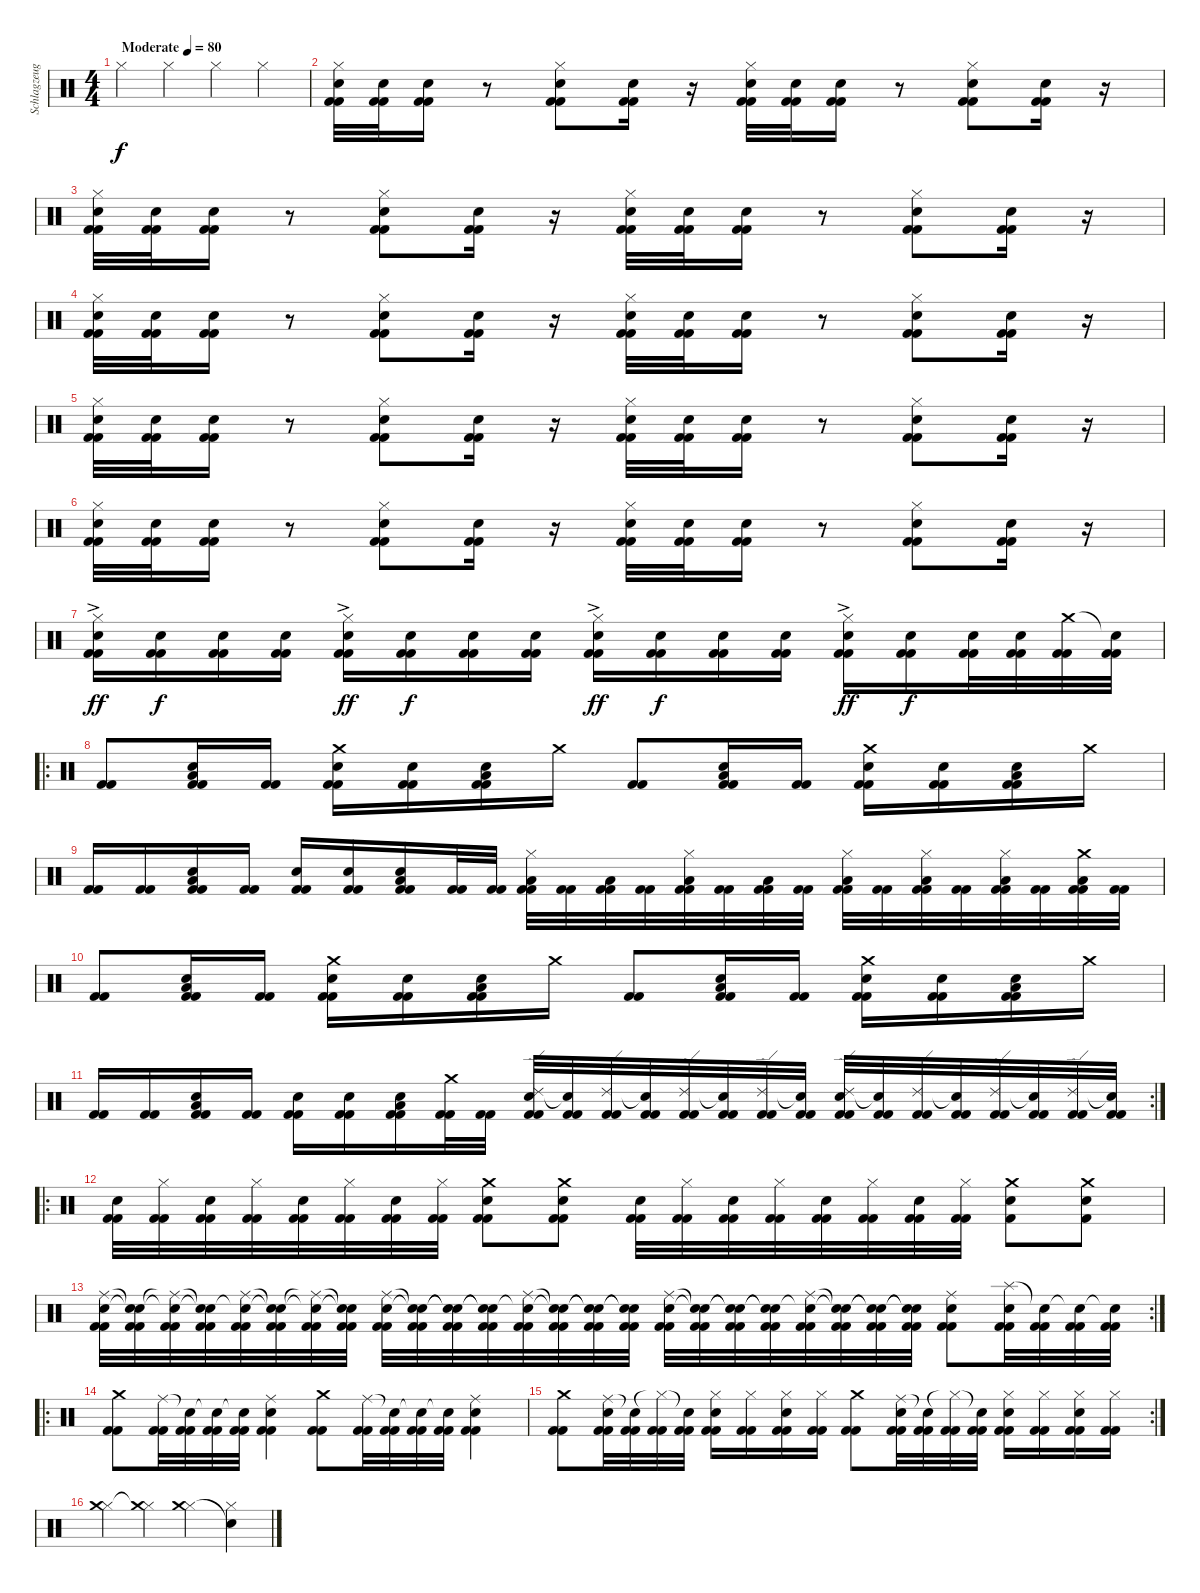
\track ("Schlagzeug" "Schlagzeug") {instrument percussion}
\staff {score}
\articulation defaults
\ts (4 4)
\tempo (80 "Moderate")
\clef neutral
\ks c "Hi-Hat (closed)".4{dy f} "Hi-Hat (closed)".4 "Hi-Hat (closed)".4 "Hi-Hat (closed)".4
|
("Hi-Hat (closed)" "Snare (hit) 2" "Kick (hit) 2" "Kick (hit) 2").32 ("Snare (hit) 2" "Kick (hit) 2" "Kick (hit) 2").32 ("Snare (hit) 2" "Kick (hit) 2" "Kick (hit) 2").16 r.8 ("Hi-Hat (closed)" "Snare (hit) 2" "Kick (hit) 2" "Kick (hit) 2").8 ("Snare (hit) 2" "Kick (hit) 2" "Kick (hit) 2").16 r.16 ("Hi-Hat (closed)" "Snare (hit) 2" "Kick (hit) 2" "Kick (hit) 2").32 ("Snare (hit) 2" "Kick (hit) 2" "Kick (hit) 2").32 ("Snare (hit) 2" "Kick (hit) 2" "Kick (hit) 2").16 r.8 ("Hi-Hat (closed)" "Snare (hit) 2" "Kick (hit) 2" "Kick (hit) 2").8 ("Snare (hit) 2" "Kick (hit) 2" "Kick (hit) 2").16 r.16 |
("Hi-Hat (closed)" "Snare (hit) 2" "Kick (hit) 2" "Kick (hit) 2").32 ("Snare (hit) 2" "Kick (hit) 2" "Kick (hit) 2").32 ("Snare (hit) 2" "Kick (hit) 2" "Kick (hit) 2").16 r.8 ("Hi-Hat (closed)" "Snare (hit) 2" "Kick (hit) 2" "Kick (hit) 2").8 ("Snare (hit) 2" "Kick (hit) 2" "Kick (hit) 2").16 r.16 ("Hi-Hat (closed)" "Snare (hit) 2" "Kick (hit) 2" "Kick (hit) 2").32 ("Snare (hit) 2" "Kick (hit) 2" "Kick (hit) 2").32 ("Snare (hit) 2" "Kick (hit) 2" "Kick (hit) 2").16 r.8 ("Hi-Hat (closed)" "Snare (hit) 2" "Kick (hit) 2" "Kick (hit) 2").8 ("Snare (hit) 2" "Kick (hit) 2" "Kick (hit) 2").16 r.16 |
("Hi-Hat (closed)" "Snare (hit) 2" "Kick (hit) 2" "Kick (hit) 2").32 ("Snare (hit) 2" "Kick (hit) 2" "Kick (hit) 2").32 ("Snare (hit) 2" "Kick (hit) 2" "Kick (hit) 2").16 r.8 ("Hi-Hat (closed)" "Snare (hit) 2" "Kick (hit) 2" "Kick (hit) 2").8 ("Snare (hit) 2" "Kick (hit) 2" "Kick (hit) 2").16 r.16 ("Hi-Hat (closed)" "Snare (hit) 2" "Kick (hit) 2" "Kick (hit) 2").32 ("Snare (hit) 2" "Kick (hit) 2" "Kick (hit) 2").32 ("Snare (hit) 2" "Kick (hit) 2" "Kick (hit) 2").16 r.8 ("Hi-Hat (closed)" "Snare (hit) 2" "Kick (hit) 2" "Kick (hit) 2").8 ("Snare (hit) 2" "Kick (hit) 2" "Kick (hit) 2").16 r.16 |
("Hi-Hat (closed)" "Snare (hit) 2" "Kick (hit) 2" "Kick (hit) 2").32 ("Snare (hit) 2" "Kick (hit) 2" "Kick (hit) 2").32 ("Snare (hit) 2" "Kick (hit) 2" "Kick (hit) 2").16 r.8 ("Hi-Hat (closed)" "Snare (hit) 2" "Kick (hit) 2" "Kick (hit) 2").8 ("Snare (hit) 2" "Kick (hit) 2" "Kick (hit) 2").16 r.16 ("Hi-Hat (closed)" "Snare (hit) 2" "Kick (hit) 2" "Kick (hit) 2").32 ("Snare (hit) 2" "Kick (hit) 2" "Kick (hit) 2").32 ("Snare (hit) 2" "Kick (hit) 2" "Kick (hit) 2").16 r.8 ("Hi-Hat (closed)" "Snare (hit) 2" "Kick (hit) 2" "Kick (hit) 2").8 ("Snare (hit) 2" "Kick (hit) 2" "Kick (hit) 2").16 r.16 |
("Hi-Hat (closed)" "Snare (hit) 2" "Kick (hit) 2" "Kick (hit) 2").32 ("Snare (hit) 2" "Kick (hit) 2" "Kick (hit) 2").32 ("Snare (hit) 2" "Kick (hit) 2" "Kick (hit) 2").16 r.8 ("Hi-Hat (closed)" "Snare (hit) 2" "Kick (hit) 2" "Kick (hit) 2").8 ("Snare (hit) 2" "Kick (hit) 2" "Kick (hit) 2").16 r.16 ("Hi-Hat (closed)" "Snare (hit) 2" "Kick (hit) 2" "Kick (hit) 2").32 ("Snare (hit) 2" "Kick (hit) 2" "Kick (hit) 2").32 ("Snare (hit) 2" "Kick (hit) 2" "Kick (hit) 2").16 r.8 ("Hi-Hat (closed)" "Snare (hit) 2" "Kick (hit) 2" "Kick (hit) 2").8 ("Snare (hit) 2" "Kick (hit) 2" "Kick (hit) 2").16 r.16 |
("Hi-Hat (closed)" "Snare (hit) 2"{ac} "Kick (hit) 2" "Kick (hit) 2").16{dy ff} ("Snare (hit) 2" "Kick (hit) 2" "Kick (hit) 2").16{dy f} ("Snare (hit) 2" "Kick (hit) 2" "Kick (hit) 2").16 ("Snare (hit) 2" "Kick (hit) 2" "Kick (hit) 2").16 ("Hi-Hat (closed)" "Snare (hit) 2"{ac} "Kick (hit) 2" "Kick (hit) 2").16{dy ff} ("Snare (hit) 2" "Kick (hit) 2" "Kick (hit) 2").16{dy f} ("Snare (hit) 2" "Kick (hit) 2" "Kick (hit) 2").16 ("Snare (hit) 2" "Kick (hit) 2" "Kick (hit) 2").16 ("Hi-Hat (closed)" "Snare (hit) 2"{ac} "Kick (hit) 2" "Kick (hit) 2").16{dy ff} ("Snare (hit) 2" "Kick (hit) 2" "Kick (hit) 2").16{dy f} ("Snare (hit) 2" "Kick (hit) 2" "Kick (hit) 2").16 ("Snare (hit) 2" "Kick (hit) 2" "Kick (hit) 2").16 ("Hi-Hat (closed)" "Snare (hit) 2"{ac} "Kick (hit) 2" "Kick (hit) 2").16{dy ff} ("Snare (hit) 2" "Kick (hit) 2" "Kick (hit) 2").16{dy f} ("Snare (hit) 2" "Kick (hit) 2" "Kick (hit) 2").32 ("Snare (hit) 2" "Kick (hit) 2" "Kick (hit) 2").32 ("Crash medium (hit)" "Kick (hit) 2" "Kick (hit) 2").32 ("Snare (hit)"{t} "Kick (hit) 2" "Kick (hit) 2").32 |
\ro
("Kick (hit) 2" "Kick (hit) 2").8 ("Snare (hit) 2" "Low Tom (hit)" "Kick (hit) 2" "Kick (hit) 2").16 ("Kick (hit) 2" "Kick (hit) 2").16 ("Crash medium (hit)" "Snare (hit) 2" "Kick (hit) 2" "Kick (hit) 2").16 ("Snare (hit) 2" "Kick (hit) 2" "Kick (hit) 2").16 ("Snare (hit) 2" "Low Tom (hit)" "Kick (hit) 2" "Kick (hit) 2").16 "Crash medium (hit)".16 ("Kick (hit) 2" "Kick (hit) 2").8 ("Snare (hit) 2" "Low Tom (hit)" "Kick (hit) 2" "Kick (hit) 2").16 ("Kick (hit) 2" "Kick (hit) 2").16 ("Crash medium (hit)" "Snare (hit) 2" "Kick (hit) 2" "Kick (hit) 2").16 ("Snare (hit) 2" "Kick (hit) 2" "Kick (hit) 2").16 ("Snare (hit) 2" "Low Tom (hit)" "Kick (hit) 2" "Kick (hit) 2").16 "Crash medium (hit)".16 |
("Kick (hit) 2" "Kick (hit) 2").16 ("Kick (hit) 2" "Kick (hit) 2").16 ("Snare (hit) 2" "Low Tom (hit)" "Kick (hit) 2" "Kick (hit) 2").16 ("Kick (hit) 2" "Kick (hit) 2").16 ("Snare (hit) 2" "Kick (hit) 2" "Kick (hit) 2").16 ("Snare (hit) 2" "Kick (hit) 2" "Kick (hit) 2").16 ("Snare (hit) 2" "Low Tom (hit)" "Kick (hit) 2" "Kick (hit) 2").16 ("Kick (hit) 2" "Kick (hit) 2").32 ("Kick (hit) 2" "Kick (hit) 2").32 ("Hi-Hat (closed)" "Low Floor Tom (hit)" "Kick (hit) 2" "Kick (hit) 2").32 ("Kick (hit) 2" "Kick (hit) 2").32 ("Low Floor Tom (hit)" "Kick (hit) 2" "Kick (hit) 2").32 ("Kick (hit) 2" "Kick (hit) 2").32 ("Hi-Hat (closed)" "Low Floor Tom (hit)" "Kick (hit) 2" "Kick (hit) 2").32 ("Kick (hit) 2" "Kick (hit) 2").32 ("Low Floor Tom (hit)" "Kick (hit) 2" "Kick (hit) 2").32 ("Kick (hit) 2" "Kick (hit) 2").32 ("Hi-Hat (closed)" "Low Floor Tom (hit)" "Kick (hit) 2" "Kick (hit) 2").32 ("Kick (hit) 2" "Kick (hit) 2").32 ("Hi-Hat (closed)" "Low Floor Tom (hit)" "Kick (hit) 2" "Kick (hit) 2").32 ("Kick (hit) 2" "Kick (hit) 2").32 ("Hi-Hat (closed)" "Low Floor Tom (hit)" "Kick (hit) 2" "Kick (hit) 2").32 ("Kick (hit) 2" "Kick (hit) 2").32 ("Crash medium (hit)" "Low Floor Tom (hit)" "Kick (hit) 2" "Kick (hit) 2").32 ("Kick (hit) 2" "Kick (hit) 2").32 |
("Kick (hit) 2" "Kick (hit) 2").8 ("Snare (hit) 2" "Low Tom (hit)" "Kick (hit) 2" "Kick (hit) 2").16 ("Kick (hit) 2" "Kick (hit) 2").16 ("Crash medium (hit)" "Snare (hit) 2" "Kick (hit) 2" "Kick (hit) 2").16 ("Snare (hit) 2" "Kick (hit) 2" "Kick (hit) 2").16 ("Snare (hit) 2" "Low Tom (hit)" "Kick (hit) 2" "Kick (hit) 2").16 "Crash medium (hit)".16 ("Kick (hit) 2" "Kick (hit) 2").8 ("Snare (hit) 2" "Low Tom (hit)" "Kick (hit) 2" "Kick (hit) 2").16 ("Kick (hit) 2" "Kick (hit) 2").16 ("Crash medium (hit)" "Snare (hit) 2" "Kick (hit) 2" "Kick (hit) 2").16 ("Snare (hit) 2" "Kick (hit) 2" "Kick (hit) 2").16 ("Snare (hit) 2" "Low Tom (hit)" "Kick (hit) 2" "Kick (hit) 2").16 "Crash medium (hit)".16 |
\rc 2
("Kick (hit) 2" "Kick (hit) 2").16 ("Kick (hit) 2" "Kick (hit) 2").16 ("Snare (hit) 2" "Low Tom (hit)" "Kick (hit) 2" "Kick (hit) 2").16 ("Kick (hit) 2" "Kick (hit) 2").16 ("Snare (hit) 2" "Kick (hit) 2" "Kick (hit) 2").16 ("Snare (hit) 2" "Kick (hit) 2" "Kick (hit) 2").16 ("Snare (hit) 2" "Low Tom (hit)" "Kick (hit) 2" "Kick (hit) 2").16 ("Crash medium (hit)" "Kick (hit) 2" "Kick (hit) 2").32 ("Kick (hit) 2" "Kick (hit) 2").32 ("Ride (edge) 2" "Snare (hit) 2" "Kick (hit) 2" "Kick (hit) 2").32 ("Snare (hit)"{t} "Kick (hit) 2" "Kick (hit) 2").32 ("Ride (edge) 2" "Kick (hit) 2" "Kick (hit) 2").32 ("Snare (hit)"{t} "Kick (hit) 2" "Kick (hit) 2").32 ("Ride (edge) 2" "Kick (hit) 2" "Kick (hit) 2").32 ("Snare (hit)"{t} "Kick (hit) 2" "Kick (hit) 2").32 ("Ride (edge) 2" "Kick (hit) 2" "Kick (hit) 2").32 ("Snare (hit)"{t} "Kick (hit) 2" "Kick (hit) 2").32 ("Ride (edge) 2" "Snare (hit) 2" "Kick (hit) 2" "Kick (hit) 2").32 ("Snare (hit)"{t} "Kick (hit) 2" "Kick (hit) 2").32 ("Ride (edge) 2" "Kick (hit) 2" "Kick (hit) 2").32 ("Snare (hit)"{t} "Kick (hit) 2" "Kick (hit) 2").32 ("Ride (edge) 2" "Kick (hit) 2" "Kick (hit) 2").32 ("Snare (hit)"{t} "Kick (hit) 2" "Kick (hit) 2").32 ("Ride (edge) 2" "Kick (hit) 2" "Kick (hit) 2").32 ("Snare (hit)"{t} "Kick (hit) 2" "Kick (hit) 2").32 |
\ro
("Snare (hit) 2" "Kick (hit) 2" "Kick (hit) 2").32 ("Hi-Hat (closed)" "Kick (hit) 2" "Kick (hit) 2").32 ("Snare (hit) 2" "Kick (hit) 2" "Kick (hit) 2").32 ("Hi-Hat (closed)" "Kick (hit) 2" "Kick (hit) 2").32 ("Snare (hit) 2" "Kick (hit) 2" "Kick (hit) 2").32 ("Hi-Hat (closed)" "Kick (hit) 2" "Kick (hit) 2").32 ("Snare (hit) 2" "Kick (hit) 2" "Kick (hit) 2").32 ("Hi-Hat (closed)" "Kick (hit) 2" "Kick (hit) 2").32 ("Crash medium (hit)" "Snare (hit) 2" "Kick (hit) 2" "Kick (hit) 2").8 ("Crash medium (hit)" "Snare (hit) 2" "Kick (hit) 2" "Kick (hit) 2").8 ("Snare (hit) 2" "Kick (hit) 2" "Kick (hit) 2").32 ("Hi-Hat (closed)" "Kick (hit) 2" "Kick (hit) 2").32 ("Snare (hit) 2" "Kick (hit) 2" "Kick (hit) 2").32 ("Hi-Hat (closed)" "Kick (hit) 2" "Kick (hit) 2").32 ("Snare (hit) 2" "Kick (hit) 2" "Kick (hit) 2").32 ("Hi-Hat (closed)" "Kick (hit) 2" "Kick (hit) 2").32 ("Snare (hit) 2" "Kick (hit) 2" "Kick (hit) 2").32 ("Hi-Hat (closed)" "Kick (hit) 2" "Kick (hit) 2").32 ("Crash medium (hit)" "Snare (hit) 2" "Kick (hit) 2").8 ("Crash medium (hit)" "Snare (hit) 2" "Kick (hit) 2").8 |
\rc 2
("Ride (middle)" "Snare (hit) 2" "Kick (hit) 2" "Kick (hit) 2").32 ("Snare (hit)"{t} "Snare (hit)"{t} "Kick (hit) 2" "Kick (hit) 2").32 ("Ride (middle)"{t} "Snare (hit)"{t} "Kick (hit) 2" "Kick (hit) 2").32 ("Snare (hit)"{t} "Snare (hit)"{t} "Kick (hit) 2" "Kick (hit) 2").32 ("Ride (middle)" "Snare (hit)"{t} "Kick (hit) 2" "Kick (hit) 2").32 ("Snare (hit)"{t} "Snare (hit)"{t} "Kick (hit) 2" "Kick (hit) 2").32 ("Ride (middle)"{t} "Snare (hit)"{t} "Kick (hit) 2" "Kick (hit) 2").32 ("Snare (hit)"{t} "Snare (hit)"{t} "Kick (hit) 2" "Kick (hit) 2").32 ("Ride (middle)" "Snare (hit) 2" "Kick (hit) 2" "Kick (hit) 2").32 ("Snare (hit)"{t} "Snare (hit)"{t} "Kick (hit) 2" "Kick (hit) 2").32 ("Snare (hit)"{t} "Snare (hit)"{t} "Kick (hit) 2" "Kick (hit) 2").32 ("Snare (hit)"{t} "Snare (hit)"{t} "Kick (hit) 2" "Kick (hit) 2").32 ("Ride (middle)" "Snare (hit)"{t} "Kick (hit) 2" "Kick (hit) 2").32 ("Snare (hit)"{t} "Snare (hit)"{t} "Kick (hit) 2" "Kick (hit) 2").32 ("Snare (hit)"{t} "Snare (hit)"{t} "Kick (hit) 2" "Kick (hit) 2").32 ("Snare (hit)"{t} "Snare (hit)"{t} "Kick (hit) 2" "Kick (hit) 2").32 ("Ride (middle)" "Snare (hit) 2" "Kick (hit) 2" "Kick (hit) 2").32 ("Snare (hit)"{t} "Snare (hit)"{t} "Kick (hit) 2" "Kick (hit) 2").32 ("Snare (hit)"{t} "Snare (hit)"{t} "Kick (hit) 2" "Kick (hit) 2").32 ("Snare (hit)"{t} "Snare (hit)"{t} "Kick (hit) 2" "Kick (hit) 2").32 ("Ride (middle)" "Snare (hit)"{t} "Kick (hit) 2" "Kick (hit) 2").32 ("Snare (hit)"{t} "Snare (hit)"{t} "Kick (hit) 2" "Kick (hit) 2").32 ("Snare (hit)"{t} "Snare (hit)"{t} "Kick (hit) 2" "Kick (hit) 2").32 ("Snare (hit)"{t} "Snare (hit)"{t} "Kick (hit) 2" "Kick (hit) 2").32 ("Ride (middle)" "Snare (hit) 2" "Kick (hit) 2" "Kick (hit) 2").8 ("Splash (hit)" "Snare (hit) 2" "Kick (hit) 2" "Kick (hit) 2").32 ("Snare (hit)"{t} "Kick (hit) 2" "Kick (hit) 2").32 ("Snare (hit)"{t} "Kick (hit) 2" "Kick (hit) 2").32 ("Snare (hit)"{t} "Kick (hit) 2" "Kick (hit) 2").32 |
\ro
("Crash medium (hit)" "Kick (hit) 2" "Kick (hit) 2").8 ("Ride (middle)" "Kick (hit) 2" "Kick (hit) 2").32 ("Snare (hit)"{t} "Kick (hit) 2" "Kick (hit) 2").32 ("Snare (hit)"{t} "Kick (hit) 2" "Kick (hit) 2").32 ("Snare (hit)"{t} "Kick (hit) 2" "Kick (hit) 2").32 ("Ride (middle)" "Snare (hit) 2" "Kick (hit) 2" "Kick (hit) 2").4 ("Crash medium (hit)" "Kick (hit) 2" "Kick (hit) 2").8 ("Ride (middle)" "Kick (hit) 2" "Kick (hit) 2").32 ("Snare (hit)"{t} "Kick (hit) 2" "Kick (hit) 2").32 ("Snare (hit)"{t} "Kick (hit) 2" "Kick (hit) 2").32 ("Snare (hit)"{t} "Kick (hit) 2" "Kick (hit) 2").32 ("Ride (middle)" "Snare (hit) 2" "Kick (hit) 2" "Kick (hit) 2").4 |
\rc 2
("Crash medium (hit)" "Kick (hit) 2" "Kick (hit) 2").8 ("Ride (middle)" "Snare (hit) 2" "Kick (hit) 2" "Kick (hit) 2").32 ("Snare (hit)"{t} "Kick (hit) 2" "Kick (hit) 2").32 ("Hi-Hat (closed)"{t} "Kick (hit) 2" "Kick (hit) 2").32 ("Snare (hit)"{t} "Kick (hit) 2" "Kick (hit) 2").32 ("Hi-Hat (closed)" "Snare (hit) 2" "Kick (hit) 2" "Kick (hit) 2").16 ("Hi-Hat (closed)" "Kick (hit) 2" "Kick (hit) 2").16 ("Hi-Hat (closed)" "Snare (hit) 2" "Kick (hit) 2" "Kick (hit) 2").16 ("Hi-Hat (closed)" "Kick (hit) 2" "Kick (hit) 2").16 ("Crash medium (hit)" "Kick (hit) 2" "Kick (hit) 2").8 ("Ride (middle)" "Snare (hit) 2" "Kick (hit) 2" "Kick (hit) 2").32 ("Snare (hit)"{t} "Kick (hit) 2" "Kick (hit) 2").32 ("Hi-Hat (closed)"{t} "Kick (hit) 2" "Kick (hit) 2").32 ("Snare (hit)"{t} "Kick (hit) 2" "Kick (hit) 2").32 ("Hi-Hat (closed)" "Snare (hit) 2" "Kick (hit) 2" "Kick (hit) 2").16 ("Hi-Hat (closed)" "Kick (hit) 2" "Kick (hit) 2").16 ("Hi-Hat (closed)" "Snare (hit) 2" "Kick (hit) 2" "Kick (hit) 2").16 ("Hi-Hat (closed)" "Kick (hit) 2" "Kick (hit) 2").16 |
("Hi-Hat (closed)" "Crash medium (hit)").4 ("Hi-Hat (closed)" "Crash medium (hit)"{t}).4 ("Hi-Hat (closed)" "Crash medium (hit)").4 ("Hi-Hat (closed)" "Snare (hit)"{t}).4
